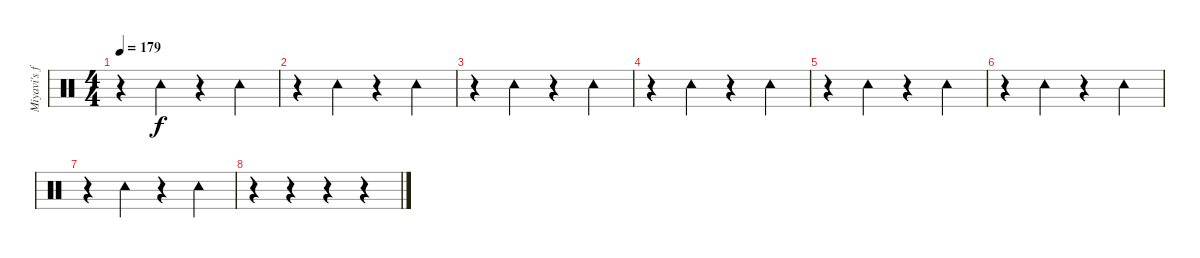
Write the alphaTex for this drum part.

\track ("Miyavi's foot" "Miyavi's f") {instrument percussion}
\staff {score}
\articulation defaults
\ts (4 4)
\tempo 179
\clef neutral
\ks c
r.4{dy f} "Tambourine (hit)".4 r.4 "Tambourine (hit)".4 |
r.4 "Tambourine (hit)".4 r.4 "Tambourine (hit)".4 |
r.4 "Tambourine (hit)".4 r.4 "Tambourine (hit)".4 |
r.4 "Tambourine (hit)".4 r.4 "Tambourine (hit)".4 |
r.4 "Tambourine (hit)".4 r.4 "Tambourine (hit)".4 |
r.4 "Tambourine (hit)".4 r.4 "Tambourine (hit)".4 |
r.4 "Tambourine (hit)".4 r.4 "Tambourine (hit)".4 |
r.4 r.4 r.4 r.4
